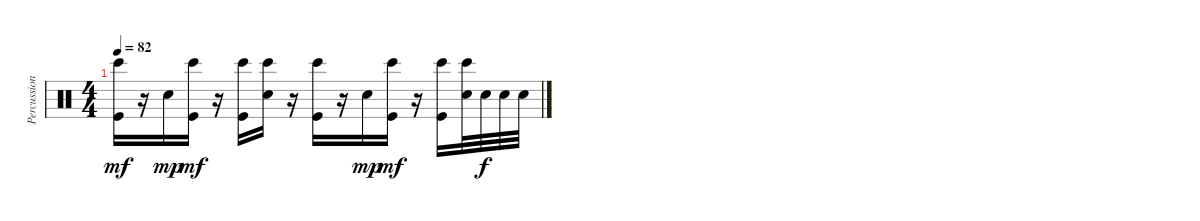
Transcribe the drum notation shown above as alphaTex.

\track ("Percussion" "Percussion") {instrument percussion}
\staff {score}
\articulation defaults
\ts (4 4)
\tempo 82
\clef neutral
\ks c
("Kick (hit)" "Bongo High (hit)").16{dy mf} r.16 "Electric Snare (hit)".16{dy mp} ("Kick (hit)" "Bongo High (hit)").16{dy mf} r.16 ("Kick (hit)" "Bongo High (hit)").16 ("Electric Snare (hit)" "Bongo High (hit)").16 r.16 ("Kick (hit)" "Bongo High (hit)").16 r.16 "Electric Snare (hit)".16{dy mp} ("Kick (hit)" "Bongo High (hit)").16{dy mf} r.16 ("Kick (hit)" "Bongo High (hit)").16 ("Electric Snare (hit)" "Bongo High (hit)").32 "Electric Snare (hit)".32{dy f} "Electric Snare (hit)".32 "Electric Snare (hit)".32
